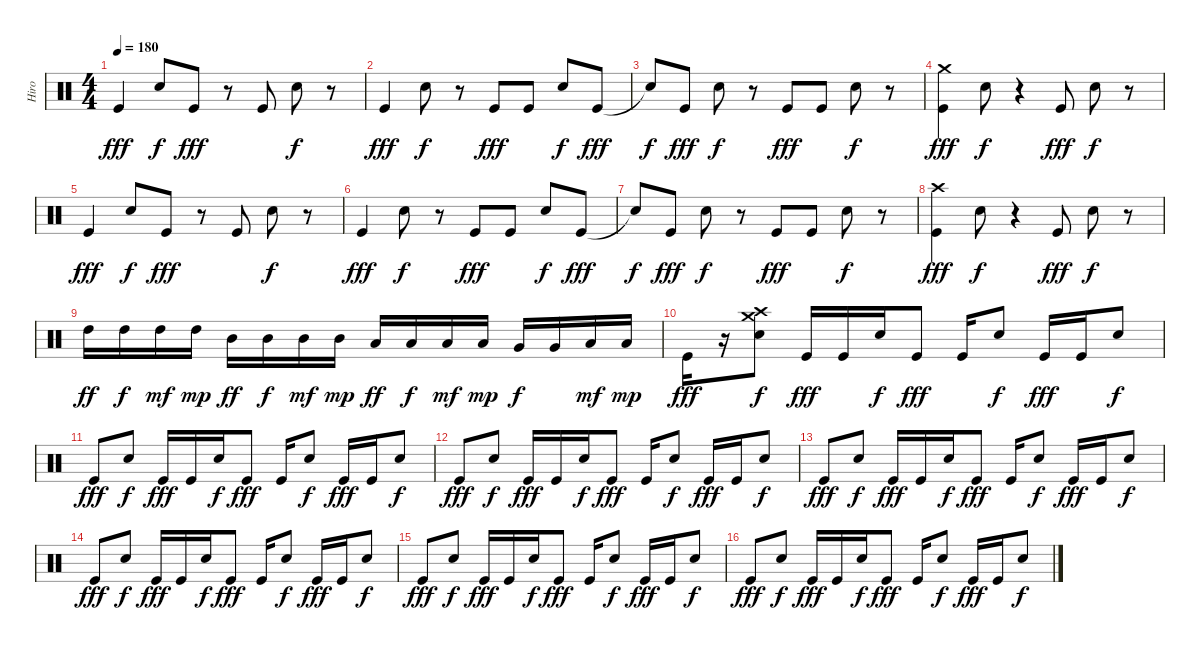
\track ("Hiro" "Hiro") {instrument percussion}
\staff {score}
\articulation defaults
\ts (4 4)
\tempo 180
\clef neutral
\ks c "Kick (hit)".4{dy fff} "Electric Snare (hit)".8{dy f} "Kick (hit)".8{dy fff}
r.8 "Kick (hit)".8 "Electric Snare (hit)".8{dy f} r.8 |
"Kick (hit)".4{dy fff} "Electric Snare (hit)".8{dy f} r.8 "Kick (hit)".8{dy fff} "Kick (hit)".8 "Electric Snare (hit)".8{dy f} "Kick (hit)".8{dy fff} |
"Snare (hit)"{t}.8{dy f} "Kick (hit)".8{dy fff} "Electric Snare (hit)".8{dy f} r.8 "Kick (hit)".8{dy fff} "Kick (hit)".8 "Electric Snare (hit)".8{dy f} r.8 |
("Crash medium (hit)" "Kick (hit)").4{dy fff} "Electric Snare (hit)".8{dy f} r.4 "Kick (hit)".8{dy fff} "Electric Snare (hit)".8{dy f} r.8 |
"Kick (hit)".4{dy fff} "Electric Snare (hit)".8{dy f} "Kick (hit)".8{dy fff} r.8 "Kick (hit)".8 "Electric Snare (hit)".8{dy f} r.8 |
"Kick (hit)".4{dy fff} "Electric Snare (hit)".8{dy f} r.8 "Kick (hit)".8{dy fff} "Kick (hit)".8 "Electric Snare (hit)".8{dy f} "Kick (hit)".8{dy fff} |
"Snare (hit)"{t}.8{dy f} "Kick (hit)".8{dy fff} "Electric Snare (hit)".8{dy f} r.8 "Kick (hit)".8{dy fff} "Kick (hit)".8 "Electric Snare (hit)".8{dy f} r.8 |
("Crash high (hit)" "Kick (hit)").4{dy fff} "Electric Snare (hit)".8{dy f} r.4 "Kick (hit)".8{dy fff} "Electric Snare (hit)".8{dy f} r.8 |
"High Tom (hit)".16{dy ff} "High Tom (hit)".16{dy f} "High Tom (hit)".16{dy mf} "High Tom (hit)".16{dy mp} "Mid Tom (hit)".16{dy ff} "Mid Tom (hit)".16{dy f} "Mid Tom (hit)".16{dy mf} "Mid Tom (hit)".16{dy mp} "Low Tom (hit)".16{dy ff} "Low Tom (hit)".16{dy f} "Low Tom (hit)".16{dy mf} "Low Tom (hit)".16{dy mp} "Very Low Tom (hit)".16{dy f} "Very Low Tom (hit)".16 "Low Floor Tom (hit)".16{dy mf} "Low Floor Tom (hit)".16{dy mp} |
"Kick (hit)".16{dy fff} r.16 ("Crash high (hit)" "Electric Snare (hit)" "Crash medium (hit)").8{dy f} "Kick (hit)".16{dy fff} "Kick (hit)".16 "Electric Snare (hit)".16{dy f} "Kick (hit)".8{dy fff} "Kick (hit)".16 "Electric Snare (hit)".8{dy f} "Kick (hit)".16{dy fff} "Kick (hit)".16 "Electric Snare (hit)".8{dy f} |
"Kick (hit)".8{dy fff} "Electric Snare (hit)".8{dy f} "Kick (hit)".16{dy fff} "Kick (hit)".16 "Electric Snare (hit)".16{dy f} "Kick (hit)".8{dy fff} "Kick (hit)".16 "Electric Snare (hit)".8{dy f} "Kick (hit)".16{dy fff} "Kick (hit)".16 "Electric Snare (hit)".8{dy f} |
"Kick (hit)".8{dy fff} "Electric Snare (hit)".8{dy f} "Kick (hit)".16{dy fff} "Kick (hit)".16 "Electric Snare (hit)".16{dy f} "Kick (hit)".8{dy fff} "Kick (hit)".16 "Electric Snare (hit)".8{dy f} "Kick (hit)".16{dy fff} "Kick (hit)".16 "Electric Snare (hit)".8{dy f} |
"Kick (hit)".8{dy fff} "Electric Snare (hit)".8{dy f} "Kick (hit)".16{dy fff} "Kick (hit)".16 "Electric Snare (hit)".16{dy f} "Kick (hit)".8{dy fff} "Kick (hit)".16 "Electric Snare (hit)".8{dy f} "Kick (hit)".16{dy fff} "Kick (hit)".16 "Electric Snare (hit)".8{dy f} |
"Kick (hit)".8{dy fff} "Electric Snare (hit)".8{dy f} "Kick (hit)".16{dy fff} "Kick (hit)".16 "Electric Snare (hit)".16{dy f} "Kick (hit)".8{dy fff} "Kick (hit)".16 "Electric Snare (hit)".8{dy f} "Kick (hit)".16{dy fff} "Kick (hit)".16 "Electric Snare (hit)".8{dy f} |
"Kick (hit)".8{dy fff} "Electric Snare (hit)".8{dy f} "Kick (hit)".16{dy fff} "Kick (hit)".16 "Electric Snare (hit)".16{dy f} "Kick (hit)".8{dy fff} "Kick (hit)".16 "Electric Snare (hit)".8{dy f} "Kick (hit)".16{dy fff} "Kick (hit)".16 "Electric Snare (hit)".8{dy f} |
"Kick (hit)".8{dy fff} "Electric Snare (hit)".8{dy f} "Kick (hit)".16{dy fff} "Kick (hit)".16 "Electric Snare (hit)".16{dy f} "Kick (hit)".8{dy fff} "Kick (hit)".16 "Electric Snare (hit)".8{dy f} "Kick (hit)".16{dy fff} "Kick (hit)".16 "Electric Snare (hit)".8{dy f}
